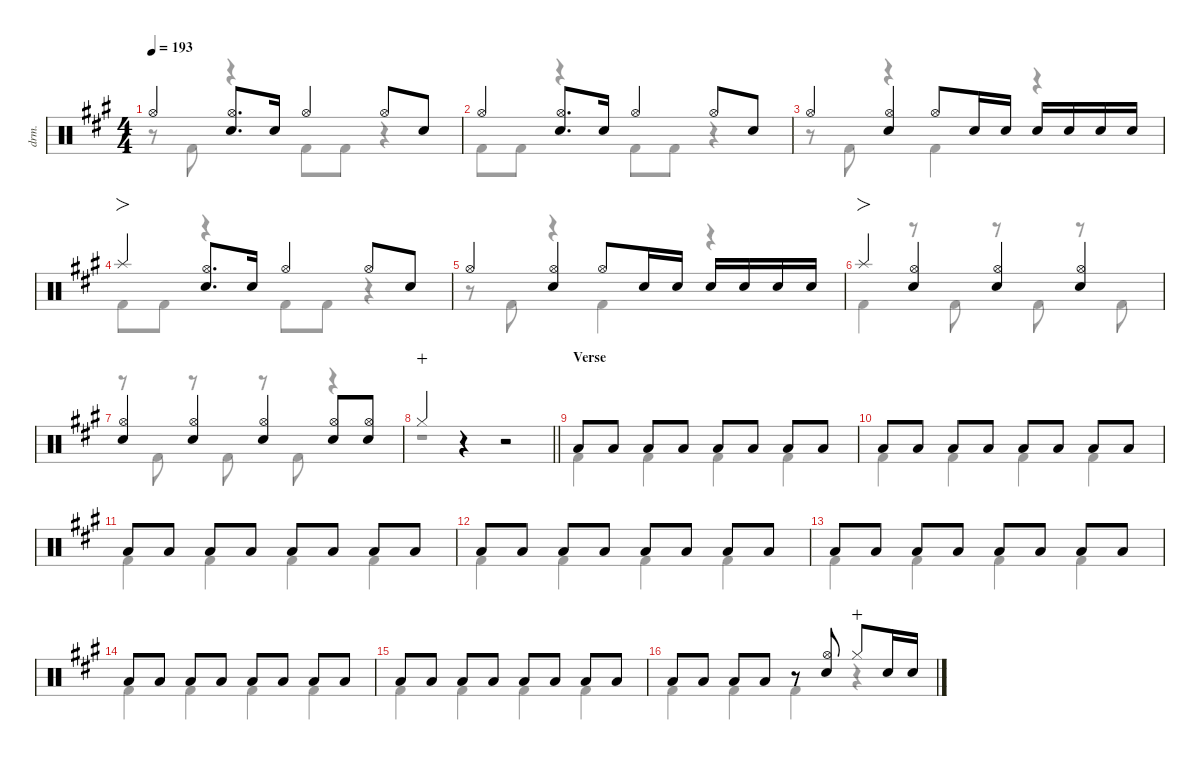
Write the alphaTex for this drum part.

\defaultSystemsLayout 4
\hideDynamics
\bracketExtendMode nobrackets
\otherSystemsTrackNameOrientation horizontal
\track ("伊地知虹夏" "drm.") {instrument percussion}
\staff {score}
\articulation defaults
\voice
\ts (4 4)
\tempo 193
\clef neutral
\ks a "Hi-Hat (open)"{acc forcenatural}.4{dy mf beam Up}
("Hi-Hat (open)"{acc forcenatural} "Snare (hit) 2"{acc forcenatural}).8{d beam Up} "Snare (hit) 2"{acc forcenatural}.16{beam Up} "Hi-Hat (open)"{acc forcenatural}.4{beam Up} "Hi-Hat (open)"{acc forcenatural}.8{beam Up} "Snare (hit) 2"{acc forcenatural}.8{beam Up} |
"Hi-Hat (open)"{acc forcenatural}.4{beam Up} ("Hi-Hat (open)"{acc forcenatural} "Snare (hit) 2"{acc forcenatural}).8{d beam Up} "Snare (hit) 2"{acc forcenatural}.16{beam Up} "Hi-Hat (open)"{acc forcenatural}.4{beam Up} "Hi-Hat (open)"{acc forcenatural}.8{beam Up} "Snare (hit) 2"{acc forcenatural}.8{beam Up} |
"Hi-Hat (open)"{acc forcenatural}.4{beam Up} ("Hi-Hat (open)"{acc forcenatural} "Snare (hit) 2"{acc forcenatural}).4{beam Up} "Hi-Hat (open)"{acc forcenatural}.8{beam Up} "Snare (hit) 2"{acc forcenatural}.16{beam Up} "Snare (hit) 2"{acc forcenatural}.16{beam Up} "Snare (hit) 2"{acc forcenatural}.16{beam Up} "Snare (hit) 2"{acc forcenatural}.16{beam Up} "Snare (hit) 2"{acc forcenatural}.16{beam Up} "Snare (hit) 2"{acc forcenatural}.16{beam Up} |
"Splash (hit)"{acc forcenatural}.4{fo beam Up} ("Hi-Hat (open)"{acc forcenatural} "Snare (hit) 2"{acc forcenatural}).8{d beam Up} "Snare (hit) 2"{acc forcenatural}.16{beam Up} "Hi-Hat (open)"{acc forcenatural}.4{beam Up} "Hi-Hat (open)"{acc forcenatural}.8{beam Up} "Snare (hit) 2"{acc forcenatural}.8{beam Up} |
"Hi-Hat (open)"{acc forcenatural}.4{beam Up} ("Hi-Hat (open)"{acc forcenatural} "Snare (hit) 2"{acc forcenatural}).4{beam Up} "Hi-Hat (open)"{acc forcenatural}.8{beam Up} "Snare (hit) 2"{acc forcenatural}.16{beam Up} "Snare (hit) 2"{acc forcenatural}.16{beam Up} "Snare (hit) 2"{acc forcenatural}.16{beam Up} "Snare (hit) 2"{acc forcenatural}.16{beam Up} "Snare (hit) 2"{acc forcenatural}.16{beam Up} "Snare (hit) 2"{acc forcenatural}.16{beam Up} |
"Splash (hit)"{acc forcenatural}.4{fo beam Up} ("Hi-Hat (open)"{acc forcenatural} "Snare (hit) 2"{acc forcenatural}).4{beam Up} ("Hi-Hat (open)"{acc forcenatural} "Snare (hit) 2"{acc forcenatural}).4{beam Up} ("Hi-Hat (open)"{acc forcenatural} "Snare (hit) 2"{acc forcenatural}).4{beam Up} |
("Hi-Hat (open)"{acc forcenatural} "Snare (hit) 2"{acc forcenatural}).4{beam Up} ("Hi-Hat (open)"{acc forcenatural} "Snare (hit) 2"{acc forcenatural}).4{beam Up} ("Hi-Hat (open)"{acc forcenatural} "Snare (hit) 2"{acc forcenatural}).4{beam Up} ("Hi-Hat (open)"{acc forcenatural} "Snare (hit) 2"{acc forcenatural}).8{beam Up} ("Hi-Hat (open)"{acc forcenatural} "Snare (hit) 2"{acc forcenatural}).8{beam Up} |
\barLineRight lightlight "Hi-Hat (closed)"{acc forcenatural}.4{wahc beam Up}
r.4{beam Up} r.2{beam Up} |
\section ("" "Verse")
"Low Tom (hit)"{acc forcenatural}.8{beam Up} "Low Tom (hit)"{acc forcenatural}.8{beam Up} "Low Tom (hit)"{acc forcenatural}.8{beam Up} "Low Tom (hit)"{acc forcenatural}.8{beam Up} "Low Tom (hit)"{acc forcenatural}.8{beam Up} "Low Tom (hit)"{acc forcenatural}.8{beam Up} "Low Tom (hit)"{acc forcenatural}.8{beam Up} "Low Tom (hit)"{acc forcenatural}.8{beam Up} |
"Low Tom (hit)"{acc forcenatural}.8{beam Up} "Low Tom (hit)"{acc forcenatural}.8{beam Up} "Low Tom (hit)"{acc forcenatural}.8{beam Up} "Low Tom (hit)"{acc forcenatural}.8{beam Up} "Low Tom (hit)"{acc forcenatural}.8{beam Up} "Low Tom (hit)"{acc forcenatural}.8{beam Up} "Low Tom (hit)"{acc forcenatural}.8{beam Up} "Low Tom (hit)"{acc forcenatural}.8{beam Up} |
"Low Tom (hit)"{acc forcenatural}.8{beam Up} "Low Tom (hit)"{acc forcenatural}.8{beam Up} "Low Tom (hit)"{acc forcenatural}.8{beam Up} "Low Tom (hit)"{acc forcenatural}.8{beam Up} "Low Tom (hit)"{acc forcenatural}.8{beam Up} "Low Tom (hit)"{acc forcenatural}.8{beam Up} "Low Tom (hit)"{acc forcenatural}.8{beam Up} "Low Tom (hit)"{acc forcenatural}.8{beam Up} |
"Low Tom (hit)"{acc forcenatural}.8{beam Up} "Low Tom (hit)"{acc forcenatural}.8{beam Up} "Low Tom (hit)"{acc forcenatural}.8{beam Up} "Low Tom (hit)"{acc forcenatural}.8{beam Up} "Low Tom (hit)"{acc forcenatural}.8{beam Up} "Low Tom (hit)"{acc forcenatural}.8{beam Up} "Low Tom (hit)"{acc forcenatural}.8{beam Up} "Low Tom (hit)"{acc forcenatural}.8{beam Up} |
"Low Tom (hit)"{acc forcenatural}.8{beam Up} "Low Tom (hit)"{acc forcenatural}.8{beam Up} "Low Tom (hit)"{acc forcenatural}.8{beam Up} "Low Tom (hit)"{acc forcenatural}.8{beam Up} "Low Tom (hit)"{acc forcenatural}.8{beam Up} "Low Tom (hit)"{acc forcenatural}.8{beam Up} "Low Tom (hit)"{acc forcenatural}.8{beam Up} "Low Tom (hit)"{acc forcenatural}.8{beam Up} |
"Low Tom (hit)"{acc forcenatural}.8{beam Up} "Low Tom (hit)"{acc forcenatural}.8{beam Up} "Low Tom (hit)"{acc forcenatural}.8{beam Up} "Low Tom (hit)"{acc forcenatural}.8{beam Up} "Low Tom (hit)"{acc forcenatural}.8{beam Up} "Low Tom (hit)"{acc forcenatural}.8{beam Up} "Low Tom (hit)"{acc forcenatural}.8{beam Up} "Low Tom (hit)"{acc forcenatural}.8{beam Up} |
"Low Tom (hit)"{acc forcenatural}.8{beam Up} "Low Tom (hit)"{acc forcenatural}.8{beam Up} "Low Tom (hit)"{acc forcenatural}.8{beam Up} "Low Tom (hit)"{acc forcenatural}.8{beam Up} "Low Tom (hit)"{acc forcenatural}.8{beam Up} "Low Tom (hit)"{acc forcenatural}.8{beam Up} "Low Tom (hit)"{acc forcenatural}.8{beam Up} "Low Tom (hit)"{acc forcenatural}.8{beam Up} |
"Low Tom (hit)"{acc forcenatural}.8{beam Up} "Low Tom (hit)"{acc forcenatural}.8{beam Up} "Low Tom (hit)"{acc forcenatural}.8{beam Up} "Low Tom (hit)"{acc forcenatural}.8{beam Up} r.8{beam Up} ("Snare (hit) 2"{acc forcenatural} "Hi-Hat (open)"{acc forcenatural}).8{beam Up} "Hi-Hat (closed)"{acc forcenatural}.8{wahc beam Up} "Snare (hit) 2"{acc forcenatural}.16{beam Up} "Snare (hit) 2"{acc forcenatural}.16{beam Up}
\voice
\clef neutral
\ottava regular
\simile none
\ks a
r.8{dy mf beam Down} "Kick (hit) 2"{acc forcenatural}.8{beam Down} r.4{beam Down} "Kick (hit) 2"{acc forcenatural}.8{beam Down} "Kick (hit) 2"{acc forcenatural}.8{beam Down} r.4{beam Down} |
"Kick (hit) 2"{acc forcenatural}.8{beam Down} "Kick (hit) 2"{acc forcenatural}.8{beam Down} r.4{beam Down} "Kick (hit) 2"{acc forcenatural}.8{beam Down} "Kick (hit) 2"{acc forcenatural}.8{beam Down} r.4{beam Down} |
r.8{beam Down} "Kick (hit) 2"{acc forcenatural}.8{beam Down} r.4{beam Down} "Kick (hit) 2"{acc forcenatural}.4{beam Down} r.4{beam Down} |
"Kick (hit) 2"{acc forcenatural}.8{beam Down} "Kick (hit) 2"{acc forcenatural}.8{beam Down} r.4{beam Down} "Kick (hit) 2"{acc forcenatural}.8{beam Down} "Kick (hit) 2"{acc forcenatural}.8{beam Down} r.4{beam Down} |
r.8{beam Down} "Kick (hit) 2"{acc forcenatural}.8{beam Down} r.4{beam Down} "Kick (hit) 2"{acc forcenatural}.4{beam Down} r.4{beam Down} |
"Kick (hit) 2"{acc forcenatural}.4{beam Down} r.8{beam Down} "Kick (hit) 2"{acc forcenatural}.8{beam Down} r.8{beam Down} "Kick (hit) 2"{acc forcenatural}.8{beam Down} r.8{beam Down} "Kick (hit) 2"{acc forcenatural}.8{beam Down} |
r.8{beam Down} "Kick (hit) 2"{acc forcenatural}.8{beam Down} r.8{beam Down} "Kick (hit) 2"{acc forcenatural}.8{beam Down} r.8{beam Down} "Kick (hit) 2"{acc forcenatural}.8{beam Down} r.4{beam Down} |
\barLineRight lightlight
r.1{beam Down} |
"Kick (hit) 2"{acc forcenatural}.4{beam Down} "Kick (hit) 2"{acc forcenatural}.4{beam Down} "Kick (hit) 2"{acc forcenatural}.4{beam Down} "Kick (hit) 2"{acc forcenatural}.4{beam Down} |
"Kick (hit) 2"{acc forcenatural}.4{beam Down} "Kick (hit) 2"{acc forcenatural}.4{beam Down} "Kick (hit) 2"{acc forcenatural}.4{beam Down} "Kick (hit) 2"{acc forcenatural}.4{beam Down} |
"Kick (hit) 2"{acc forcenatural}.4{beam Down} "Kick (hit) 2"{acc forcenatural}.4{beam Down} "Kick (hit) 2"{acc forcenatural}.4{beam Down} "Kick (hit) 2"{acc forcenatural}.4{beam Down} |
"Kick (hit) 2"{acc forcenatural}.4{beam Down} "Kick (hit) 2"{acc forcenatural}.4{beam Down} "Kick (hit) 2"{acc forcenatural}.4{beam Down} "Kick (hit) 2"{acc forcenatural}.4{beam Down} |
"Kick (hit) 2"{acc forcenatural}.4{beam Down} "Kick (hit) 2"{acc forcenatural}.4{beam Down} "Kick (hit) 2"{acc forcenatural}.4{beam Down} "Kick (hit) 2"{acc forcenatural}.4{beam Down} |
"Kick (hit) 2"{acc forcenatural}.4{beam Down} "Kick (hit) 2"{acc forcenatural}.4{beam Down} "Kick (hit) 2"{acc forcenatural}.4{beam Down} "Kick (hit) 2"{acc forcenatural}.4{beam Down} |
"Kick (hit) 2"{acc forcenatural}.4{beam Down} "Kick (hit) 2"{acc forcenatural}.4{beam Down} "Kick (hit) 2"{acc forcenatural}.4{beam Down} "Kick (hit) 2"{acc forcenatural}.4{beam Down} |
"Kick (hit) 2"{acc forcenatural}.4{beam Down} "Kick (hit) 2"{acc forcenatural}.4{beam Down} "Kick (hit) 2"{acc forcenatural}.4{beam Down} r.4{beam Down}
